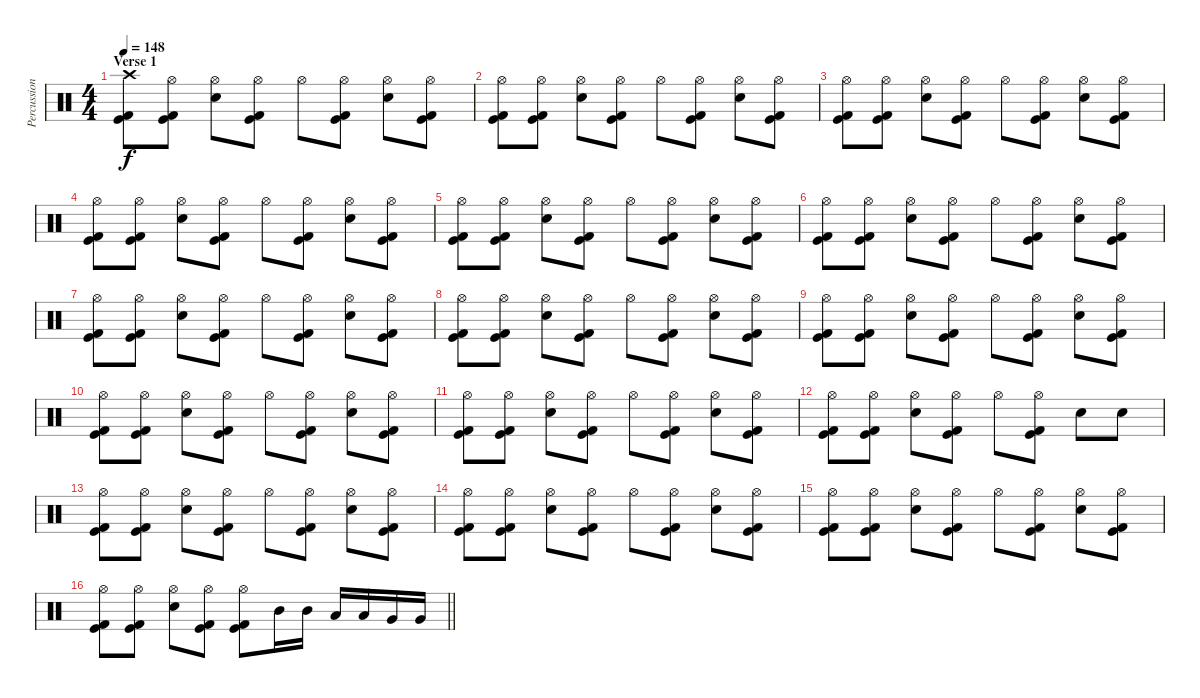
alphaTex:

\track ("Percussion" "Percussion") {instrument percussion}
\staff {score}
\articulation defaults
\ts (4 4)
\section ("" "Verse 1")
\tempo 148
\clef neutral
\ks c
("Crash high (hit)" "Kick (hit)" "Kick (hit) 2").8{dy f} ("Hi-Hat (open)" "Kick (hit)" "Kick (hit) 2").8 ("Hi-Hat (open)" "Electric Snare (hit)").8 ("Hi-Hat (open)" "Kick (hit)" "Kick (hit) 2").8 "Hi-Hat (open)".8 ("Hi-Hat (open)" "Kick (hit)" "Kick (hit) 2").8 ("Hi-Hat (open)" "Electric Snare (hit)").8 ("Hi-Hat (open)" "Kick (hit)" "Kick (hit) 2").8 |
("Hi-Hat (open)" "Kick (hit)" "Kick (hit) 2").8 ("Hi-Hat (open)" "Kick (hit)" "Kick (hit) 2").8 ("Hi-Hat (open)" "Electric Snare (hit)").8 ("Hi-Hat (open)" "Kick (hit)" "Kick (hit) 2").8 "Hi-Hat (open)".8 ("Hi-Hat (open)" "Kick (hit)" "Kick (hit) 2").8 ("Hi-Hat (open)" "Electric Snare (hit)").8 ("Hi-Hat (open)" "Kick (hit)" "Kick (hit) 2").8 |
("Hi-Hat (open)" "Kick (hit)" "Kick (hit) 2").8 ("Hi-Hat (open)" "Kick (hit)" "Kick (hit) 2").8 ("Hi-Hat (open)" "Electric Snare (hit)").8 ("Hi-Hat (open)" "Kick (hit)" "Kick (hit) 2").8 "Hi-Hat (open)".8 ("Hi-Hat (open)" "Kick (hit)" "Kick (hit) 2").8 ("Hi-Hat (open)" "Electric Snare (hit)").8 ("Hi-Hat (open)" "Kick (hit)" "Kick (hit) 2").8 |
("Hi-Hat (open)" "Kick (hit)" "Kick (hit) 2").8 ("Hi-Hat (open)" "Kick (hit)" "Kick (hit) 2").8 ("Hi-Hat (open)" "Electric Snare (hit)").8 ("Hi-Hat (open)" "Kick (hit)" "Kick (hit) 2").8 "Hi-Hat (open)".8 ("Hi-Hat (open)" "Kick (hit)" "Kick (hit) 2").8 ("Hi-Hat (open)" "Electric Snare (hit)").8 ("Hi-Hat (open)" "Kick (hit)" "Kick (hit) 2").8 |
("Hi-Hat (open)" "Kick (hit)" "Kick (hit) 2").8 ("Hi-Hat (open)" "Kick (hit)" "Kick (hit) 2").8 ("Hi-Hat (open)" "Electric Snare (hit)").8 ("Hi-Hat (open)" "Kick (hit)" "Kick (hit) 2").8 "Hi-Hat (open)".8 ("Hi-Hat (open)" "Kick (hit)" "Kick (hit) 2").8 ("Hi-Hat (open)" "Electric Snare (hit)").8 ("Hi-Hat (open)" "Kick (hit)" "Kick (hit) 2").8 |
("Hi-Hat (open)" "Kick (hit)" "Kick (hit) 2").8 ("Hi-Hat (open)" "Kick (hit)" "Kick (hit) 2").8 ("Hi-Hat (open)" "Electric Snare (hit)").8 ("Hi-Hat (open)" "Kick (hit)" "Kick (hit) 2").8 "Hi-Hat (open)".8 ("Hi-Hat (open)" "Kick (hit)" "Kick (hit) 2").8 ("Hi-Hat (open)" "Electric Snare (hit)").8 ("Hi-Hat (open)" "Kick (hit)" "Kick (hit) 2").8 |
("Hi-Hat (open)" "Kick (hit)" "Kick (hit) 2").8 ("Hi-Hat (open)" "Kick (hit)" "Kick (hit) 2").8 ("Hi-Hat (open)" "Electric Snare (hit)").8 ("Hi-Hat (open)" "Kick (hit)" "Kick (hit) 2").8 "Hi-Hat (open)".8 ("Hi-Hat (open)" "Kick (hit)" "Kick (hit) 2").8 ("Hi-Hat (open)" "Electric Snare (hit)").8 ("Hi-Hat (open)" "Kick (hit)" "Kick (hit) 2").8 |
("Hi-Hat (open)" "Kick (hit)" "Kick (hit) 2").8 ("Hi-Hat (open)" "Kick (hit)" "Kick (hit) 2").8 ("Hi-Hat (open)" "Electric Snare (hit)").8 ("Hi-Hat (open)" "Kick (hit)" "Kick (hit) 2").8 "Hi-Hat (open)".8 ("Hi-Hat (open)" "Kick (hit)" "Kick (hit) 2").8 ("Hi-Hat (open)" "Electric Snare (hit)").8 ("Hi-Hat (open)" "Kick (hit)" "Kick (hit) 2").8 |
("Hi-Hat (open)" "Kick (hit)" "Kick (hit) 2").8 ("Hi-Hat (open)" "Kick (hit)" "Kick (hit) 2").8 ("Hi-Hat (open)" "Electric Snare (hit)").8 ("Hi-Hat (open)" "Kick (hit)" "Kick (hit) 2").8 "Hi-Hat (open)".8 ("Hi-Hat (open)" "Kick (hit)" "Kick (hit) 2").8 ("Hi-Hat (open)" "Electric Snare (hit)").8 ("Hi-Hat (open)" "Kick (hit)" "Kick (hit) 2").8 |
("Hi-Hat (open)" "Kick (hit)" "Kick (hit) 2").8 ("Hi-Hat (open)" "Kick (hit)" "Kick (hit) 2").8 ("Hi-Hat (open)" "Electric Snare (hit)").8 ("Hi-Hat (open)" "Kick (hit)" "Kick (hit) 2").8 "Hi-Hat (open)".8 ("Hi-Hat (open)" "Kick (hit)" "Kick (hit) 2").8 ("Hi-Hat (open)" "Electric Snare (hit)").8 ("Hi-Hat (open)" "Kick (hit)" "Kick (hit) 2").8 |
("Hi-Hat (open)" "Kick (hit)" "Kick (hit) 2").8 ("Hi-Hat (open)" "Kick (hit)" "Kick (hit) 2").8 ("Hi-Hat (open)" "Electric Snare (hit)").8 ("Hi-Hat (open)" "Kick (hit)" "Kick (hit) 2").8 "Hi-Hat (open)".8 ("Hi-Hat (open)" "Kick (hit)" "Kick (hit) 2").8 ("Hi-Hat (open)" "Electric Snare (hit)").8 ("Hi-Hat (open)" "Kick (hit)" "Kick (hit) 2").8 |
("Hi-Hat (open)" "Kick (hit)" "Kick (hit) 2").8 ("Hi-Hat (open)" "Kick (hit)" "Kick (hit) 2").8 ("Hi-Hat (open)" "Electric Snare (hit)").8 ("Hi-Hat (open)" "Kick (hit)" "Kick (hit) 2").8 "Hi-Hat (open)".8 ("Hi-Hat (open)" "Kick (hit)" "Kick (hit) 2").8 "Electric Snare (hit)".8 "Electric Snare (hit)".8 |
("Hi-Hat (open)" "Kick (hit)" "Kick (hit) 2").8 ("Hi-Hat (open)" "Kick (hit)" "Kick (hit) 2").8 ("Hi-Hat (open)" "Electric Snare (hit)").8 ("Hi-Hat (open)" "Kick (hit)" "Kick (hit) 2").8 "Hi-Hat (open)".8 ("Hi-Hat (open)" "Kick (hit)" "Kick (hit) 2").8 ("Hi-Hat (open)" "Electric Snare (hit)").8 ("Hi-Hat (open)" "Kick (hit)" "Kick (hit) 2").8 |
("Hi-Hat (open)" "Kick (hit)" "Kick (hit) 2").8 ("Hi-Hat (open)" "Kick (hit)" "Kick (hit) 2").8 ("Hi-Hat (open)" "Electric Snare (hit)").8 ("Hi-Hat (open)" "Kick (hit)" "Kick (hit) 2").8 "Hi-Hat (open)".8 ("Hi-Hat (open)" "Kick (hit)" "Kick (hit) 2").8 ("Hi-Hat (open)" "Electric Snare (hit)").8 ("Hi-Hat (open)" "Kick (hit)" "Kick (hit) 2").8 |
("Hi-Hat (open)" "Kick (hit)" "Kick (hit) 2").8 ("Hi-Hat (open)" "Kick (hit)" "Kick (hit) 2").8 ("Hi-Hat (open)" "Electric Snare (hit)").8 ("Hi-Hat (open)" "Kick (hit)" "Kick (hit) 2").8 "Hi-Hat (open)".8 ("Hi-Hat (open)" "Kick (hit)" "Kick (hit) 2").8 ("Hi-Hat (open)" "Electric Snare (hit)").8 ("Hi-Hat (open)" "Kick (hit)" "Kick (hit) 2").8 |
\barLineRight lightlight
("Hi-Hat (open)" "Kick (hit)" "Kick (hit) 2").8 ("Hi-Hat (open)" "Kick (hit)" "Kick (hit) 2").8 ("Hi-Hat (open)" "Electric Snare (hit)").8 ("Hi-Hat (open)" "Kick (hit)" "Kick (hit) 2").8 ("Hi-Hat (open)" "Kick (hit)" "Kick (hit) 2").8 "Mid Tom (hit)".16 "Mid Tom (hit)".16 "Low Tom (hit)".16 "Low Tom (hit)".16 "Very Low Tom (hit)".16 "Very Low Tom (hit)".16
